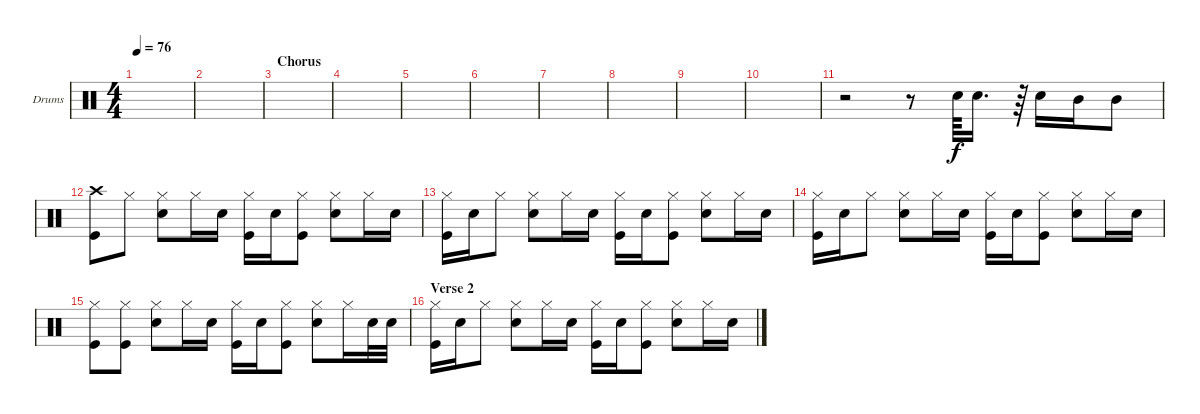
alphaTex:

\bracketExtendMode groupsimilarinstruments
\firstSystemTrackNameOrientation horizontal
\otherSystemsTrackNameOrientation horizontal
\track ("Drums" "Drums") {instrument percussion}
\staff {score}
\articulation defaults
\ts (4 4)
\tempo 76
\clef neutral
\scale
0.333333
\ks c
|
\scale
0.333333 |
\section ("" "Chorus")
\scale
0.333333 |
\scale
0.333333 |
\scale
0.333333 |
\scale
0.333333 |
\scale
0.333333 |
\scale
0.333333 |
\scale
0.333333 |
\scale
0.333333 |
\scale
0.333333 r.2 r.8 "Snare (hit) 2".64 "Snare (hit) 2".16{d} r.64 "Snare (hit) 2".16 "Mid Tom (hit)".16 "Mid Tom (hit)".8 |
\scale
0.333333 ("Crash high (hit)" "Kick (hit)").8 "Hi-Hat (closed)".8 ("Hi-Hat (closed)" "Snare (hit) 2").8 "Hi-Hat (closed)".16 "Snare (hit) 2".16 ("Hi-Hat (closed)" "Kick (hit)").16 "Snare (hit) 2".16 ("Hi-Hat (closed)" "Kick (hit)").8 ("Hi-Hat (closed)" "Snare (hit) 2").8 "Hi-Hat (closed)".16 "Snare (hit) 2".16 |
\scale
0.333333 ("Hi-Hat (closed)" "Kick (hit)").16 "Snare (hit) 2".16 "Hi-Hat (closed)".8 ("Hi-Hat (closed)" "Snare (hit) 2").8 "Hi-Hat (closed)".16 "Snare (hit) 2".16 ("Hi-Hat (closed)" "Kick (hit)").16 "Snare (hit) 2".16 ("Hi-Hat (closed)" "Kick (hit)").8 ("Hi-Hat (closed)" "Snare (hit) 2").8 "Hi-Hat (closed)".16 "Snare (hit) 2".16 |
\scale
0.333333 ("Hi-Hat (closed)" "Kick (hit)").16 "Snare (hit) 2".16 "Hi-Hat (closed)".8 ("Hi-Hat (closed)" "Snare (hit) 2").8 "Hi-Hat (closed)".16 "Snare (hit) 2".16 ("Hi-Hat (closed)" "Kick (hit)").16 "Snare (hit) 2".16 ("Hi-Hat (closed)" "Kick (hit)").8 ("Hi-Hat (closed)" "Snare (hit) 2").8 "Hi-Hat (closed)".16 "Snare (hit) 2".16 |
\scale
0.333333 ("Hi-Hat (closed)" "Kick (hit)").8 ("Hi-Hat (closed)" "Kick (hit)").8 ("Hi-Hat (closed)" "Snare (hit) 2").8 "Hi-Hat (closed)".16 "Snare (hit) 2".16 ("Hi-Hat (closed)" "Kick (hit)").16 "Snare (hit) 2".16 ("Hi-Hat (closed)" "Kick (hit)").8 ("Hi-Hat (closed)" "Snare (hit) 2").8 "Hi-Hat (closed)".16 "Snare (hit) 2".32 "Snare (hit) 2".32 |
\section ("" "Verse 2")
\scale
0.333333 ("Hi-Hat (closed)" "Kick (hit)").16 "Snare (hit) 2".16 "Hi-Hat (closed)".8 ("Hi-Hat (closed)" "Snare (hit) 2").8 "Hi-Hat (closed)".16 "Snare (hit) 2".16 ("Hi-Hat (closed)" "Kick (hit)").16 "Snare (hit) 2".16 ("Hi-Hat (closed)" "Kick (hit)").8 ("Hi-Hat (closed)" "Snare (hit) 2").8 "Hi-Hat (closed)".16 "Snare (hit) 2".16
